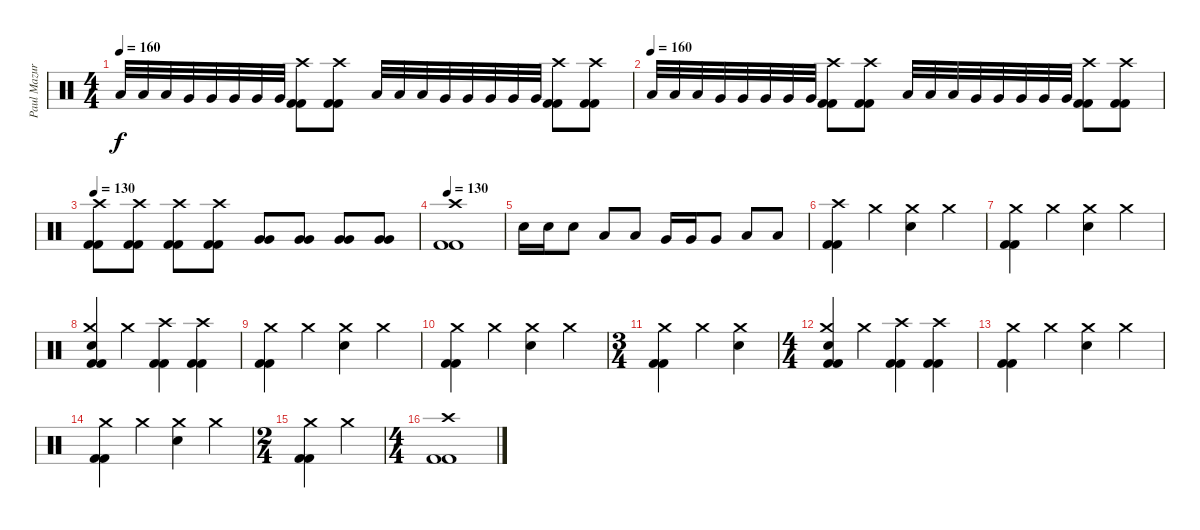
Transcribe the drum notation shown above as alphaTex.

\track ("Paul Mazurkiewicz" "Paul Mazur") {instrument percussion}
\staff {score}
\articulation defaults
\ts (4 4)
\tempo 160
\clef neutral
\ks c "Low Tom (hit)".32{dy f} "Low Tom (hit)".32 "Low Tom (hit)".32 "Very Low Tom (hit)".32 "Very Low Tom (hit)".32 "Very Low Tom (hit)".32 "Very Low Tom (hit)".32 "Very Low Tom (hit)".32
("Crash high (hit)" "Kick (hit) 2" "Kick (hit) 2").8 ("Crash high (hit)" "Kick (hit) 2" "Kick (hit) 2").8 "Low Tom (hit)".32 "Low Tom (hit)".32 "Low Tom (hit)".32 "Very Low Tom (hit)".32 "Very Low Tom (hit)".32 "Very Low Tom (hit)".32 "Very Low Tom (hit)".32 "Very Low Tom (hit)".32 ("Crash high (hit)" "Kick (hit) 2" "Kick (hit) 2").8 ("Crash high (hit)" "Kick (hit) 2" "Kick (hit) 2").8 |
\tempo (160)
"Low Tom (hit)".32 "Low Tom (hit)".32 "Low Tom (hit)".32 "Very Low Tom (hit)".32 "Very Low Tom (hit)".32 "Very Low Tom (hit)".32 "Very Low Tom (hit)".32 "Very Low Tom (hit)".32 ("Crash high (hit)" "Kick (hit) 2" "Kick (hit) 2").8 ("Crash high (hit)" "Kick (hit) 2" "Kick (hit) 2").8 "Low Tom (hit)".32 "Low Tom (hit)".32 "Low Tom (hit)".32 "Very Low Tom (hit)".32 "Very Low Tom (hit)".32 "Very Low Tom (hit)".32 "Very Low Tom (hit)".32 "Very Low Tom (hit)".32 ("Crash high (hit)" "Kick (hit) 2" "Kick (hit) 2").8 ("Crash high (hit)" "Kick (hit) 2" "Kick (hit) 2").8 |
\tempo 130
("Crash high (hit)" "Kick (hit) 2" "Kick (hit) 2").8 ("Crash high (hit)" "Kick (hit) 2" "Kick (hit) 2").8 ("Crash high (hit)" "Kick (hit) 2" "Kick (hit) 2").8 ("Crash high (hit)" "Kick (hit) 2" "Kick (hit) 2").8 ("Very Low Tom (hit)" "Very Low Tom (hit)").8 ("Very Low Tom (hit)" "Very Low Tom (hit)").8 ("Very Low Tom (hit)" "Very Low Tom (hit)").8 ("Very Low Tom (hit)" "Very Low Tom (hit)").8 |
\tempo 130
("Crash high (hit)" "Kick (hit) 2" "Kick (hit) 2").1 |
"Electric Snare (hit)".16 "Electric Snare (hit)".16 "Electric Snare (hit)".8 "Low Tom (hit)".8 "Low Tom (hit)".8 "Very Low Tom (hit)".16 "Very Low Tom (hit)".16 "Very Low Tom (hit)".8 "Low Floor Tom (hit)".8 "Low Floor Tom (hit)".8 |
("Crash high (hit)" "Kick (hit) 2" "Kick (hit) 2").4 "Crash medium (hit)".4 ("Crash medium (hit)" "Snare (hit) 2").4 "Crash medium (hit)".4 |
("Crash medium (hit)" "Kick (hit) 2" "Kick (hit) 2").4 "Crash medium (hit)".4 ("Crash medium (hit)" "Snare (hit) 2").4 "Crash medium (hit)".4 |
("Crash medium (hit)" "Snare (hit) 2" "Kick (hit) 2" "Kick (hit) 2").4 "Crash medium (hit)".4 ("Crash high (hit)" "Kick (hit) 2" "Kick (hit) 2").4 ("Crash high (hit)" "Kick (hit) 2" "Kick (hit) 2").4 |
("Crash medium (hit)" "Kick (hit) 2" "Kick (hit) 2").4 "Crash medium (hit)".4 ("Crash medium (hit)" "Snare (hit) 2").4 "Crash medium (hit)".4 |
("Crash medium (hit)" "Kick (hit) 2" "Kick (hit) 2").4 "Crash medium (hit)".4 ("Crash medium (hit)" "Snare (hit) 2").4 "Crash medium (hit)".4 |
\ts (3 4)
("Crash medium (hit)" "Kick (hit) 2" "Kick (hit) 2").4 "Crash medium (hit)".4 ("Crash medium (hit)" "Snare (hit) 2").4 |
\ts (4 4)
("Crash medium (hit)" "Snare (hit) 2" "Kick (hit) 2" "Kick (hit) 2").4 "Crash medium (hit)".4 ("Crash high (hit)" "Kick (hit) 2" "Kick (hit) 2").4 ("Crash high (hit)" "Kick (hit) 2" "Kick (hit) 2").4 |
("Crash medium (hit)" "Kick (hit) 2" "Kick (hit) 2").4 "Crash medium (hit)".4 ("Crash medium (hit)" "Snare (hit) 2").4 "Crash medium (hit)".4 |
("Crash medium (hit)" "Kick (hit) 2" "Kick (hit) 2").4 "Crash medium (hit)".4 ("Crash medium (hit)" "Snare (hit) 2").4 "Crash medium (hit)".4 |
\ts (2 4)
("Crash medium (hit)" "Kick (hit) 2" "Kick (hit) 2").4 "Crash medium (hit)".4 |
\ts (4 4)
("Crash high (hit)" "Kick (hit) 2" "Kick (hit) 2").1
